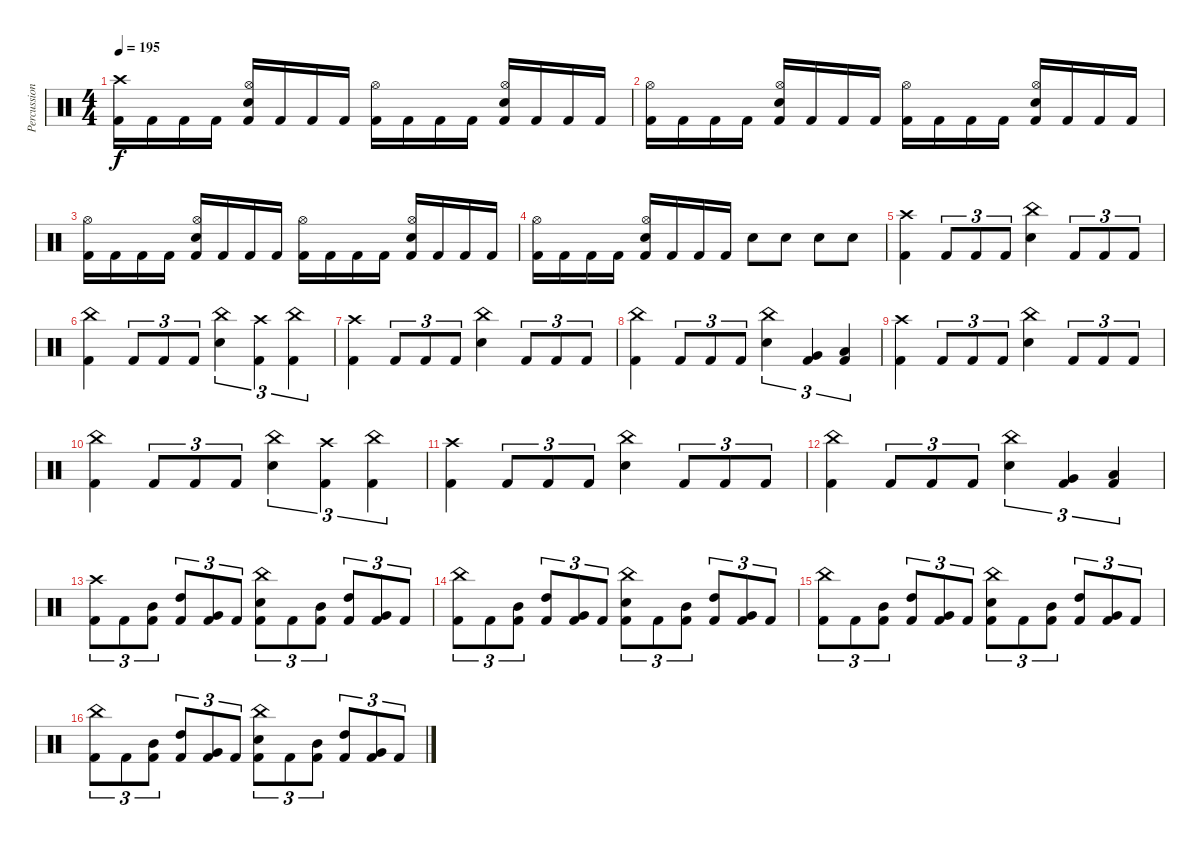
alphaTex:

\track ("Percussion" "Percussion") {instrument percussion}
\staff {score}
\articulation defaults
\ts (4 4)
\tempo 195
\clef neutral
\ks c
("Kick (hit) 2" "Crash high (hit)").16{dy f} "Kick (hit) 2".16 "Kick (hit) 2".16 "Kick (hit) 2".16 ("Kick (hit) 2" "Hi-Hat (open)" "Snare (hit) 2").16 "Kick (hit) 2".16 "Kick (hit) 2".16 "Kick (hit) 2".16 ("Kick (hit) 2" "Hi-Hat (open)").16 "Kick (hit) 2".16 "Kick (hit) 2".16 "Kick (hit) 2".16 ("Kick (hit) 2" "Hi-Hat (open)" "Snare (hit) 2").16 "Kick (hit) 2".16 "Kick (hit) 2".16 "Kick (hit) 2".16 |
("Kick (hit) 2" "Hi-Hat (open)").16 "Kick (hit) 2".16 "Kick (hit) 2".16 "Kick (hit) 2".16 ("Kick (hit) 2" "Hi-Hat (open)" "Snare (hit) 2").16 "Kick (hit) 2".16 "Kick (hit) 2".16 "Kick (hit) 2".16 ("Kick (hit) 2" "Hi-Hat (open)").16 "Kick (hit) 2".16 "Kick (hit) 2".16 "Kick (hit) 2".16 ("Kick (hit) 2" "Hi-Hat (open)" "Snare (hit) 2").16 "Kick (hit) 2".16 "Kick (hit) 2".16 "Kick (hit) 2".16 |
("Kick (hit) 2" "Hi-Hat (open)").16 "Kick (hit) 2".16 "Kick (hit) 2".16 "Kick (hit) 2".16 ("Kick (hit) 2" "Hi-Hat (open)" "Snare (hit) 2").16 "Kick (hit) 2".16 "Kick (hit) 2".16 "Kick (hit) 2".16 ("Kick (hit) 2" "Hi-Hat (open)").16 "Kick (hit) 2".16 "Kick (hit) 2".16 "Kick (hit) 2".16 ("Kick (hit) 2" "Hi-Hat (open)" "Snare (hit) 2").16 "Kick (hit) 2".16 "Kick (hit) 2".16 "Kick (hit) 2".16 |
("Kick (hit) 2" "Hi-Hat (open)").16 "Kick (hit) 2".16 "Kick (hit) 2".16 "Kick (hit) 2".16 ("Kick (hit) 2" "Hi-Hat (open)" "Snare (hit) 2").16 "Kick (hit) 2".16 "Kick (hit) 2".16 "Kick (hit) 2".16 "Snare (hit) 2".8 "Snare (hit) 2".8 "Snare (hit) 2".8 "Snare (hit) 2".8 |
("Crash high (hit)" "Kick (hit) 2").4 "Kick (hit) 2".8{tu (3 2)} "Kick (hit) 2".8{tu (3 2)} "Kick (hit) 2".8{tu (3 2)} ("Snare (hit) 2" "China (hit)").4 "Kick (hit) 2".8{tu (3 2)} "Kick (hit) 2".8{tu (3 2)} "Kick (hit) 2".8{tu (3 2)} |
("China (hit)" "Kick (hit) 2").4 "Kick (hit) 2".8{tu (3 2)} "Kick (hit) 2".8{tu (3 2)} "Kick (hit) 2".8{tu (3 2)} ("Snare (hit) 2" "China (hit)").4{tu (3 2)} ("Kick (hit) 2" "Crash high (hit)").4{tu (3 2)} ("Kick (hit) 2" "China (hit)").4{tu (3 2)} |
("Crash high (hit)" "Kick (hit) 2").4 "Kick (hit) 2".8{tu (3 2)} "Kick (hit) 2".8{tu (3 2)} "Kick (hit) 2".8{tu (3 2)} ("Snare (hit) 2" "China (hit)").4 "Kick (hit) 2".8{tu (3 2)} "Kick (hit) 2".8{tu (3 2)} "Kick (hit) 2".8{tu (3 2)} |
("China (hit)" "Kick (hit) 2").4 "Kick (hit) 2".8{tu (3 2)} "Kick (hit) 2".8{tu (3 2)} "Kick (hit) 2".8{tu (3 2)} ("Snare (hit) 2" "China (hit)").4{tu (3 2)} ("Very Low Tom (hit)" "Kick (hit) 2").4{tu (3 2)} ("Low Floor Tom (hit)" "Kick (hit) 2").4{tu (3 2)} |
("Crash high (hit)" "Kick (hit) 2").4 "Kick (hit) 2".8{tu (3 2)} "Kick (hit) 2".8{tu (3 2)} "Kick (hit) 2".8{tu (3 2)} ("Snare (hit) 2" "China (hit)").4 "Kick (hit) 2".8{tu (3 2)} "Kick (hit) 2".8{tu (3 2)} "Kick (hit) 2".8{tu (3 2)} |
("China (hit)" "Kick (hit) 2").4 "Kick (hit) 2".8{tu (3 2)} "Kick (hit) 2".8{tu (3 2)} "Kick (hit) 2".8{tu (3 2)} ("Snare (hit) 2" "China (hit)").4{tu (3 2)} ("Kick (hit) 2" "Crash high (hit)").4{tu (3 2)} ("Kick (hit) 2" "China (hit)").4{tu (3 2)} |
("Crash high (hit)" "Kick (hit) 2").4 "Kick (hit) 2".8{tu (3 2)} "Kick (hit) 2".8{tu (3 2)} "Kick (hit) 2".8{tu (3 2)} ("Snare (hit) 2" "China (hit)").4 "Kick (hit) 2".8{tu (3 2)} "Kick (hit) 2".8{tu (3 2)} "Kick (hit) 2".8{tu (3 2)} |
("China (hit)" "Kick (hit) 2").4 "Kick (hit) 2".8{tu (3 2)} "Kick (hit) 2".8{tu (3 2)} "Kick (hit) 2".8{tu (3 2)} ("Snare (hit) 2" "China (hit)").4{tu (3 2)} ("Very Low Tom (hit)" "Kick (hit) 2").4{tu (3 2)} ("Low Floor Tom (hit)" "Kick (hit) 2").4{tu (3 2)} |
("Crash high (hit)" "Kick (hit) 2").8{tu (3 2)} "Kick (hit) 2".8{tu (3 2)} ("Kick (hit) 2" "Mid Tom (hit)").8{tu (3 2)} ("Kick (hit) 2" "High Tom (hit)").8{tu (3 2)} ("Kick (hit) 2" "Very Low Tom (hit)").8{tu (3 2)} "Kick (hit) 2".8{tu (3 2)} ("China (hit)" "Snare (hit) 2" "Kick (hit) 2").8{tu (3 2)} "Kick (hit) 2".8{tu (3 2)} ("Kick (hit) 2" "Mid Tom (hit)").8{tu (3 2)} ("Kick (hit) 2" "High Tom (hit)").8{tu (3 2)} ("Kick (hit) 2" "Very Low Tom (hit)").8{tu (3 2)} "Kick (hit) 2".8{tu (3 2)} |
("China (hit)" "Kick (hit) 2").8{tu (3 2)} "Kick (hit) 2".8{tu (3 2)} ("Kick (hit) 2" "Mid Tom (hit)").8{tu (3 2)} ("Kick (hit) 2" "High Tom (hit)").8{tu (3 2)} ("Kick (hit) 2" "Very Low Tom (hit)").8{tu (3 2)} "Kick (hit) 2".8{tu (3 2)} ("China (hit)" "Snare (hit) 2" "Kick (hit) 2").8{tu (3 2)} "Kick (hit) 2".8{tu (3 2)} ("Kick (hit) 2" "Mid Tom (hit)").8{tu (3 2)} ("Kick (hit) 2" "High Tom (hit)").8{tu (3 2)} ("Kick (hit) 2" "Very Low Tom (hit)").8{tu (3 2)} "Kick (hit) 2".8{tu (3 2)} |
("China (hit)" "Kick (hit) 2").8{tu (3 2)} "Kick (hit) 2".8{tu (3 2)} ("Kick (hit) 2" "Mid Tom (hit)").8{tu (3 2)} ("Kick (hit) 2" "High Tom (hit)").8{tu (3 2)} ("Kick (hit) 2" "Very Low Tom (hit)").8{tu (3 2)} "Kick (hit) 2".8{tu (3 2)} ("China (hit)" "Snare (hit) 2" "Kick (hit) 2").8{tu (3 2)} "Kick (hit) 2".8{tu (3 2)} ("Kick (hit) 2" "Mid Tom (hit)").8{tu (3 2)} ("Kick (hit) 2" "High Tom (hit)").8{tu (3 2)} ("Kick (hit) 2" "Very Low Tom (hit)").8{tu (3 2)} "Kick (hit) 2".8{tu (3 2)} |
("China (hit)" "Kick (hit) 2").8{tu (3 2)} "Kick (hit) 2".8{tu (3 2)} ("Kick (hit) 2" "Mid Tom (hit)").8{tu (3 2)} ("Kick (hit) 2" "High Tom (hit)").8{tu (3 2)} ("Kick (hit) 2" "Very Low Tom (hit)").8{tu (3 2)} "Kick (hit) 2".8{tu (3 2)} ("China (hit)" "Snare (hit) 2" "Kick (hit) 2").8{tu (3 2)} "Kick (hit) 2".8{tu (3 2)} ("Kick (hit) 2" "Mid Tom (hit)").8{tu (3 2)} ("Kick (hit) 2" "High Tom (hit)").8{tu (3 2)} ("Kick (hit) 2" "Very Low Tom (hit)").8{tu (3 2)} "Kick (hit) 2".8{tu (3 2)}
